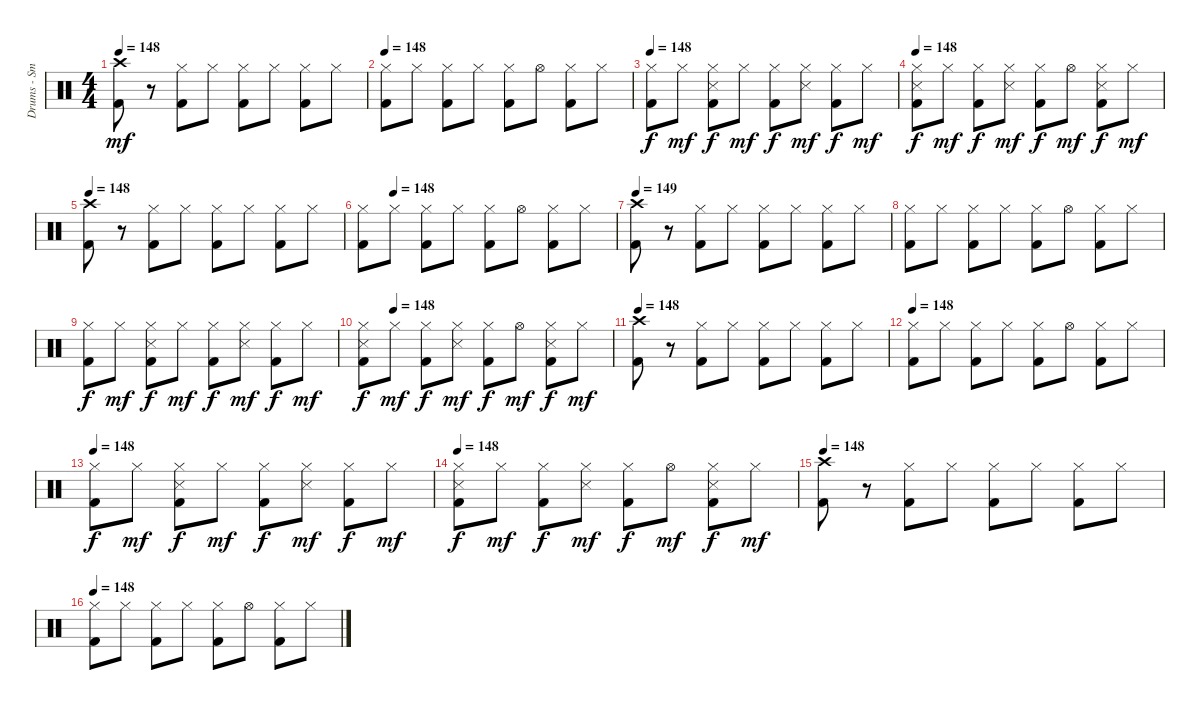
\track ("Drums - Smelly" "Drums - Sm") {instrument percussion}
\staff {score}
\articulation defaults
\ts (4 4)
\tempo 148
\clef neutral
\ks c
("Crash high (hit)" "Kick (hit) 2").8{dy mf} r.8 ("Hi-Hat (closed)" "Kick (hit) 2").8 "Hi-Hat (closed)".8 ("Kick (hit) 2" "Hi-Hat (closed)").8 "Hi-Hat (closed)".8 ("Kick (hit) 2" "Hi-Hat (closed)").8 "Hi-Hat (closed)".8 |
\tempo 148
("Hi-Hat (closed)" "Kick (hit) 2").8 "Hi-Hat (closed)".8 ("Hi-Hat (closed)" "Kick (hit) 2").8 "Hi-Hat (closed)".8 ("Hi-Hat (closed)" "Kick (hit) 2").8 "Hi-Hat (open)".8 ("Kick (hit) 2" "Hi-Hat (closed)").8 "Hi-Hat (closed)".8 |
\tempo 148
("Kick (hit) 2" "Hi-Hat (closed)").8{dy f} "Hi-Hat (closed)".8{dy mf} ("Kick (hit) 2" "Snare (side stick) 3" "Hi-Hat (closed)").8{dy f} "Hi-Hat (closed)".8{dy mf} ("Hi-Hat (closed)" "Kick (hit) 2").8{dy f} ("Snare (side stick) 3" "Hi-Hat (closed)").8{dy mf} ("Kick (hit) 2" "Hi-Hat (closed)").8{dy f} "Hi-Hat (closed)".8{dy mf} |
\tempo 148
("Hi-Hat (closed)" "Kick (hit) 2" "Snare (side stick) 3").8{dy f} "Hi-Hat (closed)".8{dy mf} ("Hi-Hat (closed)" "Kick (hit) 2").8{dy f} ("Snare (side stick) 3" "Hi-Hat (closed)").8{dy mf} ("Hi-Hat (closed)" "Kick (hit) 2").8{dy f} "Hi-Hat (open)".8{dy mf} ("Snare (side stick) 3" "Kick (hit) 2" "Hi-Hat (closed)").8{dy f} "Hi-Hat (closed)".8{dy mf} |
\tempo 148
("Crash high (hit)" "Kick (hit) 2").8 r.8 ("Kick (hit) 2" "Hi-Hat (closed)").8 "Hi-Hat (closed)".8 ("Kick (hit) 2" "Hi-Hat (closed)").8 "Hi-Hat (closed)".8 ("Hi-Hat (closed)" "Kick (hit) 2").8 "Hi-Hat (closed)".8 |
\tempo (148 0.125)
("Hi-Hat (closed)" "Kick (hit) 2").8 "Hi-Hat (closed)".8 ("Hi-Hat (closed)" "Kick (hit) 2").8 "Hi-Hat (closed)".8 ("Kick (hit) 2" "Hi-Hat (closed)").8 "Hi-Hat (open)".8 ("Hi-Hat (closed)" "Kick (hit) 2").8 "Hi-Hat (closed)".8 |
\tempo 149
("Crash high (hit)" "Kick (hit) 2").8 r.8 ("Hi-Hat (closed)" "Kick (hit) 2").8 "Hi-Hat (closed)".8 ("Hi-Hat (closed)" "Kick (hit) 2").8 "Hi-Hat (closed)".8 ("Hi-Hat (closed)" "Kick (hit) 2").8 "Hi-Hat (closed)".8 |
("Kick (hit) 2" "Hi-Hat (closed)").8 "Hi-Hat (closed)".8 ("Hi-Hat (closed)" "Kick (hit) 2").8 "Hi-Hat (closed)".8 ("Kick (hit) 2" "Hi-Hat (closed)").8 "Hi-Hat (open)".8 ("Kick (hit) 2" "Hi-Hat (closed)").8 "Hi-Hat (closed)".8 |
("Kick (hit) 2" "Hi-Hat (closed)").8{dy f} "Hi-Hat (closed)".8{dy mf} ("Snare (side stick) 3" "Kick (hit) 2" "Hi-Hat (closed)").8{dy f} "Hi-Hat (closed)".8{dy mf} ("Hi-Hat (closed)" "Kick (hit) 2").8{dy f} ("Hi-Hat (closed)" "Snare (side stick) 3").8{dy mf} ("Kick (hit) 2" "Hi-Hat (closed)").8{dy f} "Hi-Hat (closed)".8{dy mf} |
\tempo (148 0.125)
("Snare (side stick) 3" "Kick (hit) 2" "Hi-Hat (closed)").8{dy f} "Hi-Hat (closed)".8{dy mf} ("Hi-Hat (closed)" "Kick (hit) 2").8{dy f} ("Hi-Hat (closed)" "Snare (side stick) 3").8{dy mf} ("Kick (hit) 2" "Hi-Hat (closed)").8{dy f} "Hi-Hat (open)".8{dy mf} ("Kick (hit) 2" "Snare (side stick) 3" "Hi-Hat (closed)").8{dy f} "Hi-Hat (closed)".8{dy mf} |
\tempo 148
("Kick (hit) 2" "Crash high (hit)").8 r.8 ("Hi-Hat (closed)" "Kick (hit) 2").8 "Hi-Hat (closed)".8 ("Hi-Hat (closed)" "Kick (hit) 2").8 "Hi-Hat (closed)".8 ("Kick (hit) 2" "Hi-Hat (closed)").8 "Hi-Hat (closed)".8 |
\tempo 148
("Hi-Hat (closed)" "Kick (hit) 2").8 "Hi-Hat (closed)".8 ("Kick (hit) 2" "Hi-Hat (closed)").8 "Hi-Hat (closed)".8 ("Kick (hit) 2" "Hi-Hat (closed)").8 "Hi-Hat (open)".8 ("Hi-Hat (closed)" "Kick (hit) 2").8 "Hi-Hat (closed)".8 |
\tempo 148
("Kick (hit) 2" "Hi-Hat (closed)").8{dy f} "Hi-Hat (closed)".8{dy mf} ("Snare (side stick) 3" "Hi-Hat (closed)" "Kick (hit) 2").8{dy f} "Hi-Hat (closed)".8{dy mf} ("Hi-Hat (closed)" "Kick (hit) 2").8{dy f} ("Snare (side stick) 3" "Hi-Hat (closed)").8{dy mf} ("Hi-Hat (closed)" "Kick (hit) 2").8{dy f} "Hi-Hat (closed)".8{dy mf} |
\tempo 148
("Snare (side stick) 3" "Kick (hit) 2" "Hi-Hat (closed)").8{dy f} "Hi-Hat (closed)".8{dy mf} ("Kick (hit) 2" "Hi-Hat (closed)").8{dy f} ("Snare (side stick) 3" "Hi-Hat (closed)").8{dy mf} ("Kick (hit) 2" "Hi-Hat (closed)").8{dy f} "Hi-Hat (open)".8{dy mf} ("Hi-Hat (closed)" "Kick (hit) 2" "Snare (side stick) 3").8{dy f} "Hi-Hat (closed)".8{dy mf} |
\tempo 148
("Kick (hit) 2" "Crash high (hit)").8 r.8 ("Hi-Hat (closed)" "Kick (hit) 2").8 "Hi-Hat (closed)".8 ("Kick (hit) 2" "Hi-Hat (closed)").8 "Hi-Hat (closed)".8 ("Hi-Hat (closed)" "Kick (hit) 2").8 "Hi-Hat (closed)".8 |
\tempo 148
("Kick (hit) 2" "Hi-Hat (closed)").8 "Hi-Hat (closed)".8 ("Kick (hit) 2" "Hi-Hat (closed)").8 "Hi-Hat (closed)".8 ("Hi-Hat (closed)" "Kick (hit) 2").8 "Hi-Hat (open)".8 ("Hi-Hat (closed)" "Kick (hit) 2").8 "Hi-Hat (closed)".8
